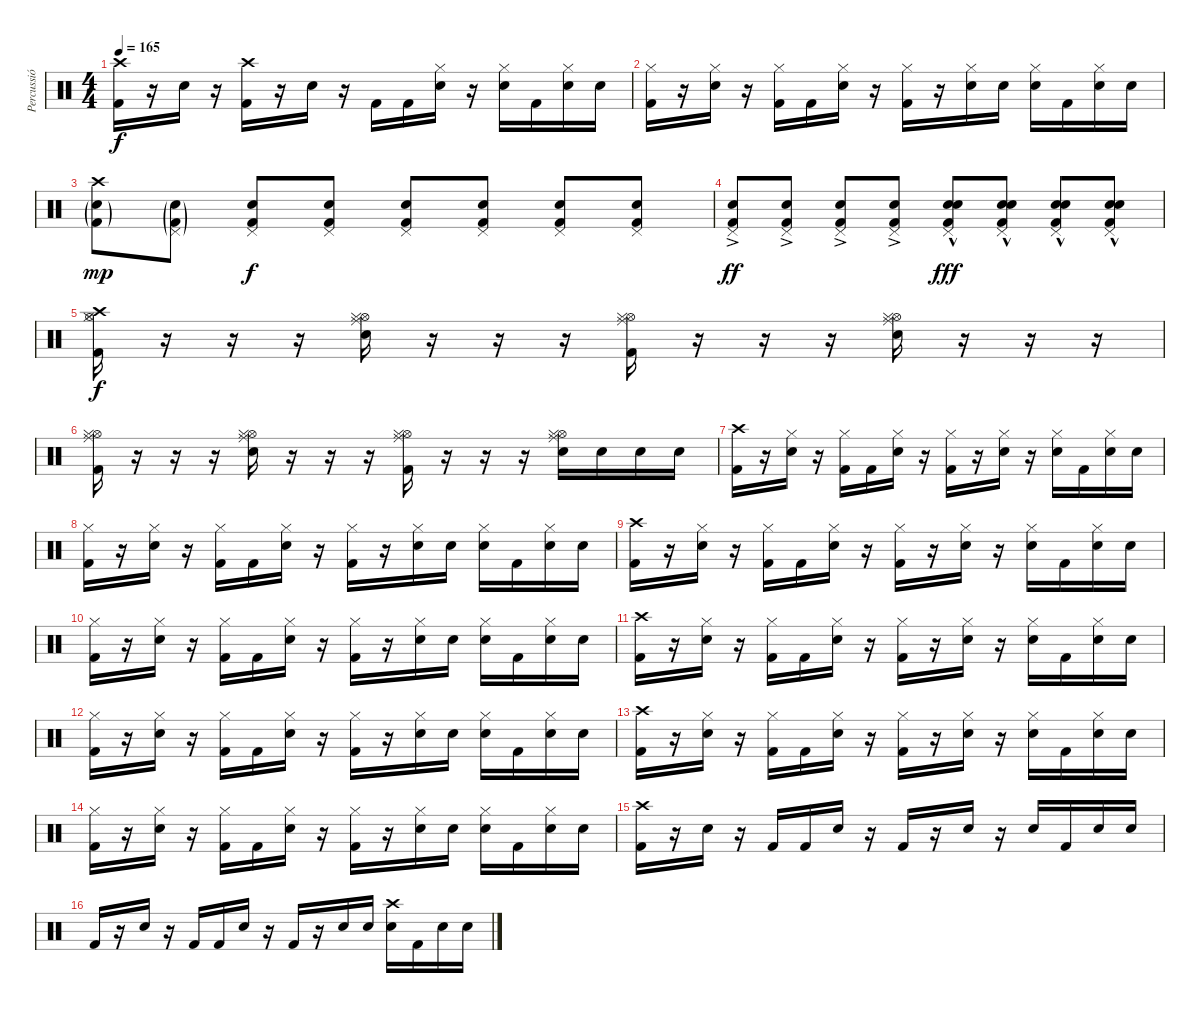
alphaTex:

\track ("Percussió" "Percussió") {instrument percussion}
\staff {score}
\articulation defaults
\ts (4 4)
\tempo 165
\clef neutral
\ks c
("Crash high (hit)" "Kick (hit) 2").16{dy f} r.16 "Electric Snare (hit)".16 r.16 ("Crash high (hit)" "Kick (hit) 2").16 r.16 "Electric Snare (hit)".16 r.16 "Kick (hit) 2".16 "Kick (hit) 2".16 ("Hi-Hat (closed)" "Electric Snare (hit)").16 r.16 ("Hi-Hat (closed)" "Electric Snare (hit)").16 "Kick (hit) 2".16 ("Hi-Hat (closed)" "Electric Snare (hit)").16 "Electric Snare (hit)".16 |
("Hi-Hat (closed)" "Kick (hit) 2").16 r.16 ("Hi-Hat (closed)" "Electric Snare (hit)").16 r.16 ("Hi-Hat (closed)" "Kick (hit) 2").16 "Kick (hit) 2".16 ("Hi-Hat (closed)" "Electric Snare (hit)").16 r.16 ("Hi-Hat (closed)" "Kick (hit) 2").16 r.16 ("Hi-Hat (closed)" "Electric Snare (hit)").16 "Electric Snare (hit)".16 ("Hi-Hat (closed)" "Electric Snare (hit)").16 "Kick (hit) 2".16 ("Hi-Hat (closed)" "Electric Snare (hit)").16 "Electric Snare (hit)".16 |
("Crash high (hit)" "Electric Snare (hit)"{g} "Kick (hit) 2"{g}).8{dy mp} ("Pedal Hi-Hat (hit)"{g} "Electric Snare (hit)"{g} "Kick (hit) 2"{g}).8 ("Pedal Hi-Hat (hit)" "Electric Snare (hit)" "Kick (hit) 2").8{dy f} ("Pedal Hi-Hat (hit)" "Electric Snare (hit)" "Kick (hit) 2").8 ("Pedal Hi-Hat (hit)" "Electric Snare (hit)" "Kick (hit) 2").8 ("Pedal Hi-Hat (hit)" "Electric Snare (hit)" "Kick (hit) 2").8 ("Pedal Hi-Hat (hit)" "Electric Snare (hit)" "Kick (hit) 2").8 ("Pedal Hi-Hat (hit)" "Electric Snare (hit)" "Kick (hit) 2").8 |
("Pedal Hi-Hat (hit)"{ac} "Electric Snare (hit)"{ac} "Kick (hit) 2"{ac}).8{dy ff} ("Pedal Hi-Hat (hit)"{ac} "Electric Snare (hit)"{ac} "Kick (hit) 2"{ac}).8 ("Pedal Hi-Hat (hit)"{ac} "Electric Snare (hit)"{ac} "Kick (hit) 2"{ac}).8 ("Pedal Hi-Hat (hit)"{ac} "Electric Snare (hit)"{ac} "Kick (hit) 2"{ac}).8 ("Pedal Hi-Hat (hit)"{hac} "Snare (hit) 2"{hac} "Electric Snare (hit)"{hac} "Kick (hit) 2"{hac}).8{dy fff} ("Pedal Hi-Hat (hit)"{hac} "Snare (hit) 2"{hac} "Electric Snare (hit)"{hac} "Kick (hit) 2"{hac}).8 ("Pedal Hi-Hat (hit)"{hac} "Snare (hit) 2"{hac} "Electric Snare (hit)"{hac} "Kick (hit) 2"{hac}).8 ("Pedal Hi-Hat (hit)"{hac} "Snare (hit) 2"{hac} "Electric Snare (hit)"{hac} "Kick (hit) 2"{hac}).8 |
("Crash high (hit)" "Hi-Hat (open)" "Hi-Hat (closed)" "Kick (hit) 2").16{dy f} r.16 r.16 r.16 ("Ride (middle)" "Hi-Hat (open)" "Hi-Hat (closed)" "Electric Snare (hit)").16 r.16 r.16 r.16 ("Ride (middle)" "Hi-Hat (open)" "Hi-Hat (closed)" "Kick (hit) 2").16 r.16 r.16 r.16 ("Ride (middle)" "Hi-Hat (open)" "Hi-Hat (closed)" "Electric Snare (hit)").16 r.16 r.16 r.16 |
("Ride (middle)" "Hi-Hat (open)" "Hi-Hat (closed)" "Kick (hit) 2").16 r.16 r.16 r.16 ("Ride (middle)" "Hi-Hat (open)" "Hi-Hat (closed)" "Electric Snare (hit)").16 r.16 r.16 r.16 ("Ride (middle)" "Hi-Hat (open)" "Hi-Hat (closed)" "Kick (hit) 2").16 r.16 r.16 r.16 ("Ride (middle)" "Hi-Hat (open)" "Hi-Hat (closed)" "Electric Snare (hit)").16 "Electric Snare (hit)".16 "Electric Snare (hit)".16 "Electric Snare (hit)".16 |
("Crash high (hit)" "Kick (hit) 2").16 r.16 ("Hi-Hat (closed)" "Electric Snare (hit)").16 r.16 ("Hi-Hat (closed)" "Kick (hit) 2").16 "Kick (hit) 2".16 ("Hi-Hat (closed)" "Electric Snare (hit)").16 r.16 ("Hi-Hat (closed)" "Kick (hit) 2").16 r.16 ("Hi-Hat (closed)" "Electric Snare (hit)").16 r.16 ("Hi-Hat (closed)" "Electric Snare (hit)").16 "Kick (hit) 2".16 ("Hi-Hat (closed)" "Electric Snare (hit)").16 "Electric Snare (hit)".16 |
("Hi-Hat (closed)" "Kick (hit) 2").16 r.16 ("Hi-Hat (closed)" "Electric Snare (hit)").16 r.16 ("Hi-Hat (closed)" "Kick (hit) 2").16 "Kick (hit) 2".16 ("Hi-Hat (closed)" "Electric Snare (hit)").16 r.16 ("Hi-Hat (closed)" "Kick (hit) 2").16 r.16 ("Hi-Hat (closed)" "Electric Snare (hit)").16 "Electric Snare (hit)".16 ("Hi-Hat (closed)" "Electric Snare (hit)").16 "Kick (hit) 2".16 ("Hi-Hat (closed)" "Electric Snare (hit)").16 "Electric Snare (hit)".16 |
("Crash high (hit)" "Kick (hit) 2").16 r.16 ("Hi-Hat (closed)" "Electric Snare (hit)").16 r.16 ("Hi-Hat (closed)" "Kick (hit) 2").16 "Kick (hit) 2".16 ("Hi-Hat (closed)" "Electric Snare (hit)").16 r.16 ("Hi-Hat (closed)" "Kick (hit) 2").16 r.16 ("Hi-Hat (closed)" "Electric Snare (hit)").16 r.16 ("Hi-Hat (closed)" "Electric Snare (hit)").16 "Kick (hit) 2".16 ("Hi-Hat (closed)" "Electric Snare (hit)").16 "Electric Snare (hit)".16 |
("Hi-Hat (closed)" "Kick (hit) 2").16 r.16 ("Hi-Hat (closed)" "Electric Snare (hit)").16 r.16 ("Hi-Hat (closed)" "Kick (hit) 2").16 "Kick (hit) 2".16 ("Hi-Hat (closed)" "Electric Snare (hit)").16 r.16 ("Hi-Hat (closed)" "Kick (hit) 2").16 r.16 ("Hi-Hat (closed)" "Electric Snare (hit)").16 "Electric Snare (hit)".16 ("Hi-Hat (closed)" "Electric Snare (hit)").16 "Kick (hit) 2".16 ("Hi-Hat (closed)" "Electric Snare (hit)").16 "Electric Snare (hit)".16 |
("Crash high (hit)" "Kick (hit) 2").16 r.16 ("Hi-Hat (closed)" "Electric Snare (hit)").16 r.16 ("Hi-Hat (closed)" "Kick (hit) 2").16 "Kick (hit) 2".16 ("Hi-Hat (closed)" "Electric Snare (hit)").16 r.16 ("Hi-Hat (closed)" "Kick (hit) 2").16 r.16 ("Hi-Hat (closed)" "Electric Snare (hit)").16 r.16 ("Hi-Hat (closed)" "Electric Snare (hit)").16 "Kick (hit) 2".16 ("Hi-Hat (closed)" "Electric Snare (hit)").16 "Electric Snare (hit)".16 |
("Hi-Hat (closed)" "Kick (hit) 2").16 r.16 ("Hi-Hat (closed)" "Electric Snare (hit)").16 r.16 ("Hi-Hat (closed)" "Kick (hit) 2").16 "Kick (hit) 2".16 ("Hi-Hat (closed)" "Electric Snare (hit)").16 r.16 ("Hi-Hat (closed)" "Kick (hit) 2").16 r.16 ("Hi-Hat (closed)" "Electric Snare (hit)").16 "Electric Snare (hit)".16 ("Hi-Hat (closed)" "Electric Snare (hit)").16 "Kick (hit) 2".16 ("Hi-Hat (closed)" "Electric Snare (hit)").16 "Electric Snare (hit)".16 |
("Crash high (hit)" "Kick (hit) 2").16 r.16 ("Hi-Hat (closed)" "Electric Snare (hit)").16 r.16 ("Hi-Hat (closed)" "Kick (hit) 2").16 "Kick (hit) 2".16 ("Hi-Hat (closed)" "Electric Snare (hit)").16 r.16 ("Hi-Hat (closed)" "Kick (hit) 2").16 r.16 ("Hi-Hat (closed)" "Electric Snare (hit)").16 r.16 ("Hi-Hat (closed)" "Electric Snare (hit)").16 "Kick (hit) 2".16 ("Hi-Hat (closed)" "Electric Snare (hit)").16 "Electric Snare (hit)".16 |
("Hi-Hat (closed)" "Kick (hit) 2").16 r.16 ("Hi-Hat (closed)" "Electric Snare (hit)").16 r.16 ("Hi-Hat (closed)" "Kick (hit) 2").16 "Kick (hit) 2".16 ("Hi-Hat (closed)" "Electric Snare (hit)").16 r.16 ("Hi-Hat (closed)" "Kick (hit) 2").16 r.16 ("Hi-Hat (closed)" "Electric Snare (hit)").16 "Electric Snare (hit)".16 ("Hi-Hat (closed)" "Electric Snare (hit)").16 "Kick (hit) 2".16 ("Hi-Hat (closed)" "Electric Snare (hit)").16 "Electric Snare (hit)".16 |
("Crash high (hit)" "Kick (hit) 2").16 r.16 "Electric Snare (hit)".16 r.16 "Kick (hit) 2".16 "Kick (hit) 2".16 "Electric Snare (hit)".16 r.16 "Kick (hit) 2".16 r.16 "Electric Snare (hit)".16 r.16 "Electric Snare (hit)".16 "Kick (hit) 2".16 "Electric Snare (hit)".16 "Electric Snare (hit)".16 |
"Kick (hit) 2".16 r.16 "Electric Snare (hit)".16 r.16 "Kick (hit) 2".16 "Kick (hit) 2".16 "Electric Snare (hit)".16 r.16 "Kick (hit) 2".16 r.16 "Electric Snare (hit)".16 "Electric Snare (hit)".16 ("Crash high (hit)" "Electric Snare (hit)").16 "Kick (hit) 2".16 "Electric Snare (hit)".16 "Electric Snare (hit)".16
